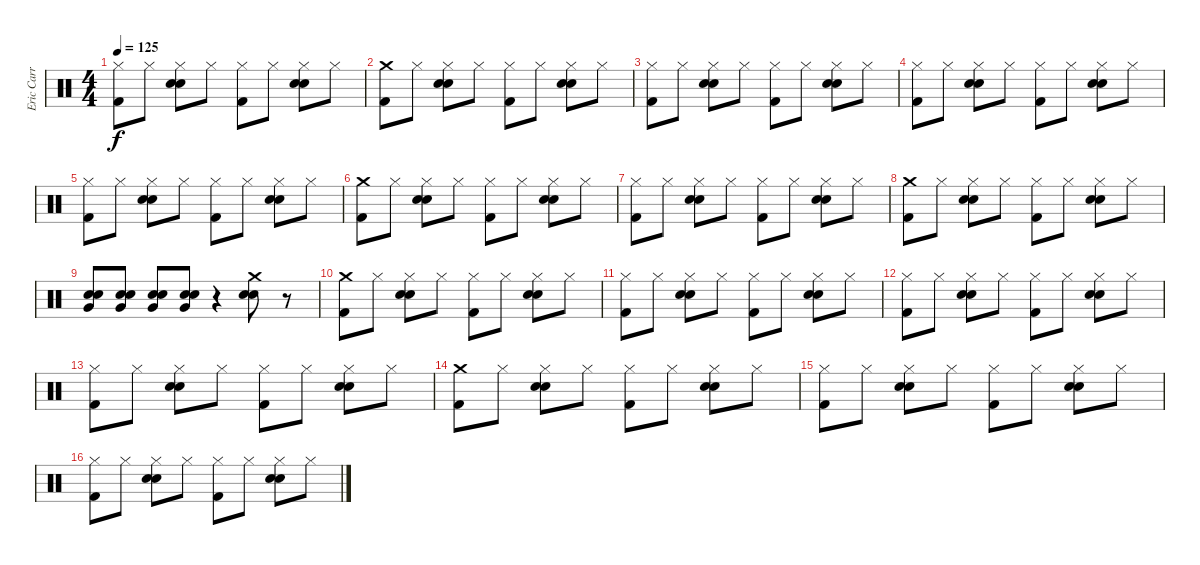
\track ("Eric Carr" "Eric Carr") {instrument percussion}
\staff {score}
\articulation defaults
\ts (4 4)
\tempo 125
\clef neutral
\ks c
("Hi-Hat (closed)" "Kick (hit) 2").8{dy f} "Hi-Hat (closed)".8 ("Hi-Hat (closed)" "Electric Snare (hit)" "Snare (hit) 2").8 "Hi-Hat (closed)".8 ("Hi-Hat (closed)" "Kick (hit) 2").8 "Hi-Hat (closed)".8 ("Hi-Hat (closed)" "Snare (hit) 2" "Electric Snare (hit)").8 "Hi-Hat (closed)".8 |
("Crash medium (hit)" "Kick (hit) 2").8 "Hi-Hat (closed)".8 ("Hi-Hat (closed)" "Electric Snare (hit)" "Snare (hit) 2").8 "Hi-Hat (closed)".8 ("Hi-Hat (closed)" "Kick (hit) 2").8 "Hi-Hat (closed)".8 ("Hi-Hat (closed)" "Snare (hit) 2" "Electric Snare (hit)").8 "Hi-Hat (closed)".8 |
("Hi-Hat (closed)" "Kick (hit) 2").8 "Hi-Hat (closed)".8 ("Hi-Hat (closed)" "Electric Snare (hit)" "Snare (hit) 2").8 "Hi-Hat (closed)".8 ("Hi-Hat (closed)" "Kick (hit) 2").8 "Hi-Hat (closed)".8 ("Hi-Hat (closed)" "Snare (hit) 2" "Electric Snare (hit)").8 "Hi-Hat (closed)".8 |
("Hi-Hat (closed)" "Kick (hit) 2").8 "Hi-Hat (closed)".8 ("Hi-Hat (closed)" "Electric Snare (hit)" "Snare (hit) 2").8 "Hi-Hat (closed)".8 ("Hi-Hat (closed)" "Kick (hit) 2").8 "Hi-Hat (closed)".8 ("Hi-Hat (closed)" "Snare (hit) 2" "Electric Snare (hit)").8 "Hi-Hat (closed)".8 |
("Hi-Hat (closed)" "Kick (hit) 2").8 "Hi-Hat (closed)".8 ("Hi-Hat (closed)" "Electric Snare (hit)" "Snare (hit) 2").8 "Hi-Hat (closed)".8 ("Hi-Hat (closed)" "Kick (hit) 2").8 "Hi-Hat (closed)".8 ("Hi-Hat (closed)" "Snare (hit) 2" "Electric Snare (hit)").8 "Hi-Hat (closed)".8 |
("Crash medium (hit)" "Kick (hit) 2").8 "Hi-Hat (closed)".8 ("Hi-Hat (closed)" "Electric Snare (hit)" "Snare (hit) 2").8 "Hi-Hat (closed)".8 ("Hi-Hat (closed)" "Kick (hit) 2").8 "Hi-Hat (closed)".8 ("Hi-Hat (closed)" "Snare (hit) 2" "Electric Snare (hit)").8 "Hi-Hat (closed)".8 |
("Hi-Hat (closed)" "Kick (hit) 2").8 "Hi-Hat (closed)".8 ("Hi-Hat (closed)" "Electric Snare (hit)" "Snare (hit) 2").8 "Hi-Hat (closed)".8 ("Hi-Hat (closed)" "Kick (hit) 2").8 "Hi-Hat (closed)".8 ("Hi-Hat (closed)" "Snare (hit) 2" "Electric Snare (hit)").8 "Hi-Hat (closed)".8 |
("Crash medium (hit)" "Kick (hit) 2").8 "Hi-Hat (closed)".8 ("Hi-Hat (closed)" "Electric Snare (hit)" "Snare (hit) 2").8 "Hi-Hat (closed)".8 ("Hi-Hat (closed)" "Kick (hit) 2").8 "Hi-Hat (closed)".8 ("Hi-Hat (closed)" "Snare (hit) 2" "Electric Snare (hit)").8 "Hi-Hat (closed)".8 |
("Very Low Tom (hit)" "Electric Snare (hit)" "Snare (hit) 2").8 ("Very Low Tom (hit)" "Electric Snare (hit)" "Snare (hit) 2").8 ("Very Low Tom (hit)" "Electric Snare (hit)" "Snare (hit) 2").8 ("Very Low Tom (hit)" "Electric Snare (hit)" "Snare (hit) 2").8 r.4 ("Crash medium (hit)" "Electric Snare (hit)" "Snare (hit) 2").8 r.8 |
("Crash medium (hit)" "Kick (hit) 2").8 "Hi-Hat (closed)".8 ("Hi-Hat (closed)" "Electric Snare (hit)" "Snare (hit) 2").8 "Hi-Hat (closed)".8 ("Hi-Hat (closed)" "Kick (hit) 2").8 "Hi-Hat (closed)".8 ("Hi-Hat (closed)" "Snare (hit) 2" "Electric Snare (hit)").8 "Hi-Hat (closed)".8 |
("Hi-Hat (closed)" "Kick (hit) 2").8 "Hi-Hat (closed)".8 ("Hi-Hat (closed)" "Electric Snare (hit)" "Snare (hit) 2").8 "Hi-Hat (closed)".8 ("Hi-Hat (closed)" "Kick (hit) 2").8 "Hi-Hat (closed)".8 ("Hi-Hat (closed)" "Snare (hit) 2" "Electric Snare (hit)").8 "Hi-Hat (closed)".8 |
("Hi-Hat (closed)" "Kick (hit) 2").8 "Hi-Hat (closed)".8 ("Hi-Hat (closed)" "Electric Snare (hit)" "Snare (hit) 2").8 "Hi-Hat (closed)".8 ("Hi-Hat (closed)" "Kick (hit) 2").8 "Hi-Hat (closed)".8 ("Hi-Hat (closed)" "Snare (hit) 2" "Electric Snare (hit)").8 "Hi-Hat (closed)".8 |
("Hi-Hat (closed)" "Kick (hit) 2").8 "Hi-Hat (closed)".8 ("Hi-Hat (closed)" "Electric Snare (hit)" "Snare (hit) 2").8 "Hi-Hat (closed)".8 ("Hi-Hat (closed)" "Kick (hit) 2").8 "Hi-Hat (closed)".8 ("Hi-Hat (closed)" "Snare (hit) 2" "Electric Snare (hit)").8 "Hi-Hat (closed)".8 |
("Crash medium (hit)" "Kick (hit) 2").8 "Hi-Hat (closed)".8 ("Hi-Hat (closed)" "Electric Snare (hit)" "Snare (hit) 2").8 "Hi-Hat (closed)".8 ("Hi-Hat (closed)" "Kick (hit) 2").8 "Hi-Hat (closed)".8 ("Hi-Hat (closed)" "Snare (hit) 2" "Electric Snare (hit)").8 "Hi-Hat (closed)".8 |
("Hi-Hat (closed)" "Kick (hit) 2").8 "Hi-Hat (closed)".8 ("Hi-Hat (closed)" "Electric Snare (hit)" "Snare (hit) 2").8 "Hi-Hat (closed)".8 ("Hi-Hat (closed)" "Kick (hit) 2").8 "Hi-Hat (closed)".8 ("Hi-Hat (closed)" "Snare (hit) 2" "Electric Snare (hit)").8 "Hi-Hat (closed)".8 |
("Hi-Hat (closed)" "Kick (hit) 2").8 "Hi-Hat (closed)".8 ("Hi-Hat (closed)" "Electric Snare (hit)" "Snare (hit) 2").8 "Hi-Hat (closed)".8 ("Hi-Hat (closed)" "Kick (hit) 2").8 "Hi-Hat (closed)".8 ("Hi-Hat (closed)" "Snare (hit) 2" "Electric Snare (hit)").8 "Hi-Hat (closed)".8
